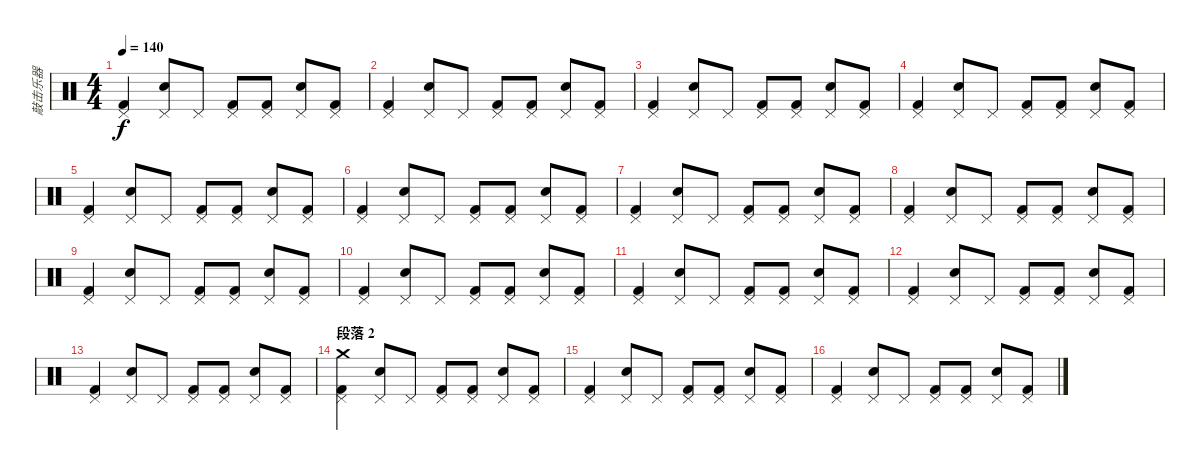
\track ("敲击乐器" "敲击乐器") {instrument percussion}
\staff {score}
\articulation defaults
\ts (4 4)
\tempo 140
\clef neutral
\ks c
("Kick (hit) 2" "Pedal Hi-Hat (hit)").4{dy f} ("Snare (hit) 2" "Pedal Hi-Hat (hit)").8 "Pedal Hi-Hat (hit)".8 ("Kick (hit) 2" "Pedal Hi-Hat (hit)").8 ("Kick (hit) 2" "Pedal Hi-Hat (hit)").8 ("Snare (hit) 2" "Pedal Hi-Hat (hit)").8 ("Kick (hit) 2" "Pedal Hi-Hat (hit)").8 |
("Kick (hit) 2" "Pedal Hi-Hat (hit)").4 ("Snare (hit) 2" "Pedal Hi-Hat (hit)").8 "Pedal Hi-Hat (hit)".8 ("Kick (hit) 2" "Pedal Hi-Hat (hit)").8 ("Kick (hit) 2" "Pedal Hi-Hat (hit)").8 ("Snare (hit) 2" "Pedal Hi-Hat (hit)").8 ("Kick (hit) 2" "Pedal Hi-Hat (hit)").8 |
("Kick (hit) 2" "Pedal Hi-Hat (hit)").4 ("Snare (hit) 2" "Pedal Hi-Hat (hit)").8 "Pedal Hi-Hat (hit)".8 ("Kick (hit) 2" "Pedal Hi-Hat (hit)").8 ("Kick (hit) 2" "Pedal Hi-Hat (hit)").8 ("Snare (hit) 2" "Pedal Hi-Hat (hit)").8 ("Kick (hit) 2" "Pedal Hi-Hat (hit)").8 |
("Kick (hit) 2" "Pedal Hi-Hat (hit)").4 ("Snare (hit) 2" "Pedal Hi-Hat (hit)").8 "Pedal Hi-Hat (hit)".8 ("Kick (hit) 2" "Pedal Hi-Hat (hit)").8 ("Kick (hit) 2" "Pedal Hi-Hat (hit)").8 ("Snare (hit) 2" "Pedal Hi-Hat (hit)").8 ("Kick (hit) 2" "Pedal Hi-Hat (hit)").8 |
("Kick (hit) 2" "Pedal Hi-Hat (hit)").4 ("Snare (hit) 2" "Pedal Hi-Hat (hit)").8 "Pedal Hi-Hat (hit)".8 ("Kick (hit) 2" "Pedal Hi-Hat (hit)").8 ("Kick (hit) 2" "Pedal Hi-Hat (hit)").8 ("Snare (hit) 2" "Pedal Hi-Hat (hit)").8 ("Kick (hit) 2" "Pedal Hi-Hat (hit)").8 |
("Kick (hit) 2" "Pedal Hi-Hat (hit)").4 ("Snare (hit) 2" "Pedal Hi-Hat (hit)").8 "Pedal Hi-Hat (hit)".8 ("Kick (hit) 2" "Pedal Hi-Hat (hit)").8 ("Kick (hit) 2" "Pedal Hi-Hat (hit)").8 ("Snare (hit) 2" "Pedal Hi-Hat (hit)").8 ("Kick (hit) 2" "Pedal Hi-Hat (hit)").8 |
("Kick (hit) 2" "Pedal Hi-Hat (hit)").4 ("Snare (hit) 2" "Pedal Hi-Hat (hit)").8 "Pedal Hi-Hat (hit)".8 ("Kick (hit) 2" "Pedal Hi-Hat (hit)").8 ("Kick (hit) 2" "Pedal Hi-Hat (hit)").8 ("Snare (hit) 2" "Pedal Hi-Hat (hit)").8 ("Kick (hit) 2" "Pedal Hi-Hat (hit)").8 |
("Kick (hit) 2" "Pedal Hi-Hat (hit)").4 ("Snare (hit) 2" "Pedal Hi-Hat (hit)").8 "Pedal Hi-Hat (hit)".8 ("Kick (hit) 2" "Pedal Hi-Hat (hit)").8 ("Kick (hit) 2" "Pedal Hi-Hat (hit)").8 ("Snare (hit) 2" "Pedal Hi-Hat (hit)").8 ("Kick (hit) 2" "Pedal Hi-Hat (hit)").8 |
("Kick (hit) 2" "Pedal Hi-Hat (hit)").4 ("Snare (hit) 2" "Pedal Hi-Hat (hit)").8 "Pedal Hi-Hat (hit)".8 ("Kick (hit) 2" "Pedal Hi-Hat (hit)").8 ("Kick (hit) 2" "Pedal Hi-Hat (hit)").8 ("Snare (hit) 2" "Pedal Hi-Hat (hit)").8 ("Kick (hit) 2" "Pedal Hi-Hat (hit)").8 |
("Kick (hit) 2" "Pedal Hi-Hat (hit)").4 ("Snare (hit) 2" "Pedal Hi-Hat (hit)").8 "Pedal Hi-Hat (hit)".8 ("Kick (hit) 2" "Pedal Hi-Hat (hit)").8 ("Kick (hit) 2" "Pedal Hi-Hat (hit)").8 ("Snare (hit) 2" "Pedal Hi-Hat (hit)").8 ("Kick (hit) 2" "Pedal Hi-Hat (hit)").8 |
("Kick (hit) 2" "Pedal Hi-Hat (hit)").4 ("Snare (hit) 2" "Pedal Hi-Hat (hit)").8 "Pedal Hi-Hat (hit)".8 ("Kick (hit) 2" "Pedal Hi-Hat (hit)").8 ("Kick (hit) 2" "Pedal Hi-Hat (hit)").8 ("Snare (hit) 2" "Pedal Hi-Hat (hit)").8 ("Kick (hit) 2" "Pedal Hi-Hat (hit)").8 |
("Kick (hit) 2" "Pedal Hi-Hat (hit)").4 ("Snare (hit) 2" "Pedal Hi-Hat (hit)").8 "Pedal Hi-Hat (hit)".8 ("Kick (hit) 2" "Pedal Hi-Hat (hit)").8 ("Kick (hit) 2" "Pedal Hi-Hat (hit)").8 ("Snare (hit) 2" "Pedal Hi-Hat (hit)").8 ("Kick (hit) 2" "Pedal Hi-Hat (hit)").8 |
("Kick (hit) 2" "Pedal Hi-Hat (hit)").4 ("Snare (hit) 2" "Pedal Hi-Hat (hit)").8 "Pedal Hi-Hat (hit)".8 ("Kick (hit) 2" "Pedal Hi-Hat (hit)").8 ("Kick (hit) 2" "Pedal Hi-Hat (hit)").8 ("Snare (hit) 2" "Pedal Hi-Hat (hit)").8 ("Kick (hit) 2" "Pedal Hi-Hat (hit)").8 |
\section ("" "段落 2")
("Kick (hit) 2" "Pedal Hi-Hat (hit)" "Crash medium (hit)").4 ("Snare (hit) 2" "Pedal Hi-Hat (hit)").8 "Pedal Hi-Hat (hit)".8 ("Kick (hit) 2" "Pedal Hi-Hat (hit)").8 ("Kick (hit) 2" "Pedal Hi-Hat (hit)").8 ("Snare (hit) 2" "Pedal Hi-Hat (hit)").8 ("Kick (hit) 2" "Pedal Hi-Hat (hit)").8 |
("Kick (hit) 2" "Pedal Hi-Hat (hit)").4 ("Snare (hit) 2" "Pedal Hi-Hat (hit)").8 "Pedal Hi-Hat (hit)".8 ("Kick (hit) 2" "Pedal Hi-Hat (hit)").8 ("Kick (hit) 2" "Pedal Hi-Hat (hit)").8 ("Snare (hit) 2" "Pedal Hi-Hat (hit)").8 ("Kick (hit) 2" "Pedal Hi-Hat (hit)").8 |
("Kick (hit) 2" "Pedal Hi-Hat (hit)").4 ("Snare (hit) 2" "Pedal Hi-Hat (hit)").8 "Pedal Hi-Hat (hit)".8 ("Kick (hit) 2" "Pedal Hi-Hat (hit)").8 ("Kick (hit) 2" "Pedal Hi-Hat (hit)").8 ("Snare (hit) 2" "Pedal Hi-Hat (hit)").8 ("Kick (hit) 2" "Pedal Hi-Hat (hit)").8
